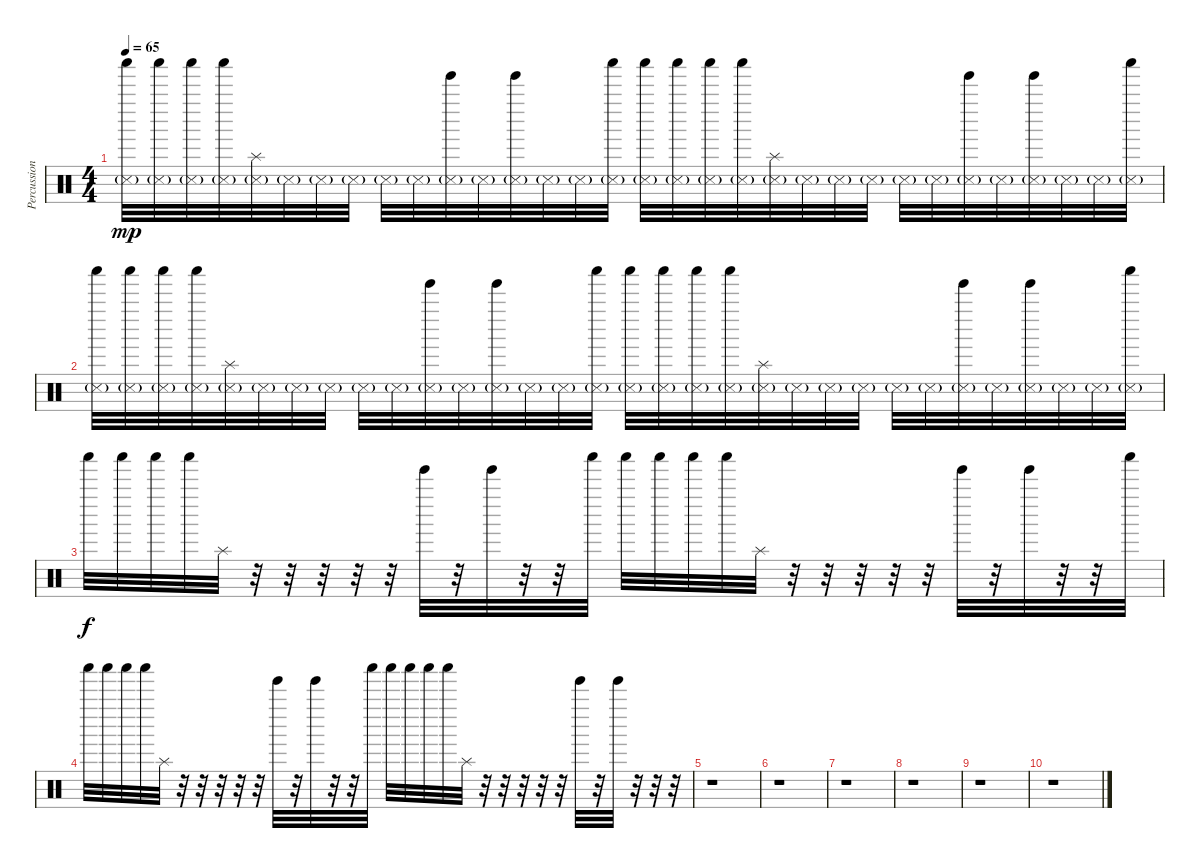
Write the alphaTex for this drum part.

\track ("Percussion 2" "Percussion") {instrument percussion}
\staff {score}
\articulation defaults
\ts (4 4)
\tempo 65
\clef neutral
\ks c
("Snare (side stick) 3"{g} "Shaker (hit)").32{dy mp} ("Snare (side stick) 3"{g} "Shaker (hit)").32 ("Snare (side stick) 3"{g} "Shaker (hit)").32 ("Snare (side stick) 3"{g} "Shaker (hit)").32 ("Snare (side stick) 3"{g} "Splash (hit)").32 "Snare (side stick) 3"{g}.32 "Snare (side stick) 3"{g}.32 "Snare (side stick) 3"{g}.32 "Snare (side stick) 3"{g}.32 "Snare (side stick) 3"{g}.32 ("Tinkle Bell (hit)" "Snare (side stick) 3"{g}).32 "Snare (side stick) 3"{g}.32 ("Tinkle Bell (hit)" "Snare (side stick) 3"{g}).32 "Snare (side stick) 3"{g}.32 "Snare (side stick) 3"{g}.32 ("Snare (side stick) 3"{g} "Shaker (hit)").32 ("Snare (side stick) 3"{g} "Shaker (hit)").32 ("Snare (side stick) 3"{g} "Shaker (hit)").32 ("Snare (side stick) 3"{g} "Shaker (hit)").32 ("Snare (side stick) 3"{g} "Shaker (hit)").32 ("Snare (side stick) 3"{g} "Splash (hit)").32 "Snare (side stick) 3"{g}.32 "Snare (side stick) 3"{g}.32 "Snare (side stick) 3"{g}.32 "Snare (side stick) 3"{g}.32 "Snare (side stick) 3"{g}.32 ("Tinkle Bell (hit)" "Snare (side stick) 3"{g}).32 "Snare (side stick) 3"{g}.32 ("Tinkle Bell (hit)" "Snare (side stick) 3"{g}).32 "Snare (side stick) 3"{g}.32 "Snare (side stick) 3"{g}.32 ("Snare (side stick) 3"{g} "Shaker (hit)").32 |
("Snare (side stick) 3"{g} "Shaker (hit)").32 ("Snare (side stick) 3"{g} "Shaker (hit)").32 ("Snare (side stick) 3"{g} "Shaker (hit)").32 ("Snare (side stick) 3"{g} "Shaker (hit)").32 ("Snare (side stick) 3"{g} "Splash (hit)").32 "Snare (side stick) 3"{g}.32 "Snare (side stick) 3"{g}.32 "Snare (side stick) 3"{g}.32 "Snare (side stick) 3"{g}.32 "Snare (side stick) 3"{g}.32 ("Tinkle Bell (hit)" "Snare (side stick) 3"{g}).32 "Snare (side stick) 3"{g}.32 ("Tinkle Bell (hit)" "Snare (side stick) 3"{g}).32 "Snare (side stick) 3"{g}.32 "Snare (side stick) 3"{g}.32 ("Snare (side stick) 3"{g} "Shaker (hit)").32 ("Snare (side stick) 3"{g} "Shaker (hit)").32 ("Snare (side stick) 3"{g} "Shaker (hit)").32 ("Snare (side stick) 3"{g} "Shaker (hit)").32 ("Snare (side stick) 3"{g} "Shaker (hit)").32 ("Snare (side stick) 3"{g} "Splash (hit)").32 "Snare (side stick) 3"{g}.32 "Snare (side stick) 3"{g}.32 "Snare (side stick) 3"{g}.32 "Snare (side stick) 3"{g}.32 "Snare (side stick) 3"{g}.32 ("Tinkle Bell (hit)" "Snare (side stick) 3"{g}).32 "Snare (side stick) 3"{g}.32 ("Tinkle Bell (hit)" "Snare (side stick) 3"{g}).32 "Snare (side stick) 3"{g}.32 "Snare (side stick) 3"{g}.32 ("Snare (side stick) 3"{g} "Shaker (hit)").32 |
\section ("" "")
"Shaker (hit)".32{dy f} "Shaker (hit)".32 "Shaker (hit)".32 "Shaker (hit)".32 "Splash (hit)".32 r.32 r.32 r.32 r.32 r.32 "Tinkle Bell (hit)".32 r.32 "Tinkle Bell (hit)".32 r.32 r.32 "Shaker (hit)".32 "Shaker (hit)".32 "Shaker (hit)".32 "Shaker (hit)".32 "Shaker (hit)".32 "Splash (hit)".32 r.32 r.32 r.32 r.32 r.32 "Tinkle Bell (hit)".32 r.32 "Tinkle Bell (hit)".32 r.32 r.32 "Shaker (hit)".32 |
"Shaker (hit)".32 "Shaker (hit)".32 "Shaker (hit)".32 "Shaker (hit)".32 "Splash (hit)".32 r.32 r.32 r.32 r.32 r.32 "Tinkle Bell (hit)".32 r.32 "Tinkle Bell (hit)".32 r.32 r.32 "Shaker (hit)".32 "Shaker (hit)".32 "Shaker (hit)".32 "Shaker (hit)".32 "Shaker (hit)".32 "Splash (hit)".32 r.32 r.32 r.32 r.32 r.32 "Tinkle Bell (hit)".32 r.32 "Tinkle Bell (hit)".32 r.32 r.32 r.32 |
r.1 |
r.1 |
\section ("" "")
r.1 |
r.1 |
r.1 |
r.1
